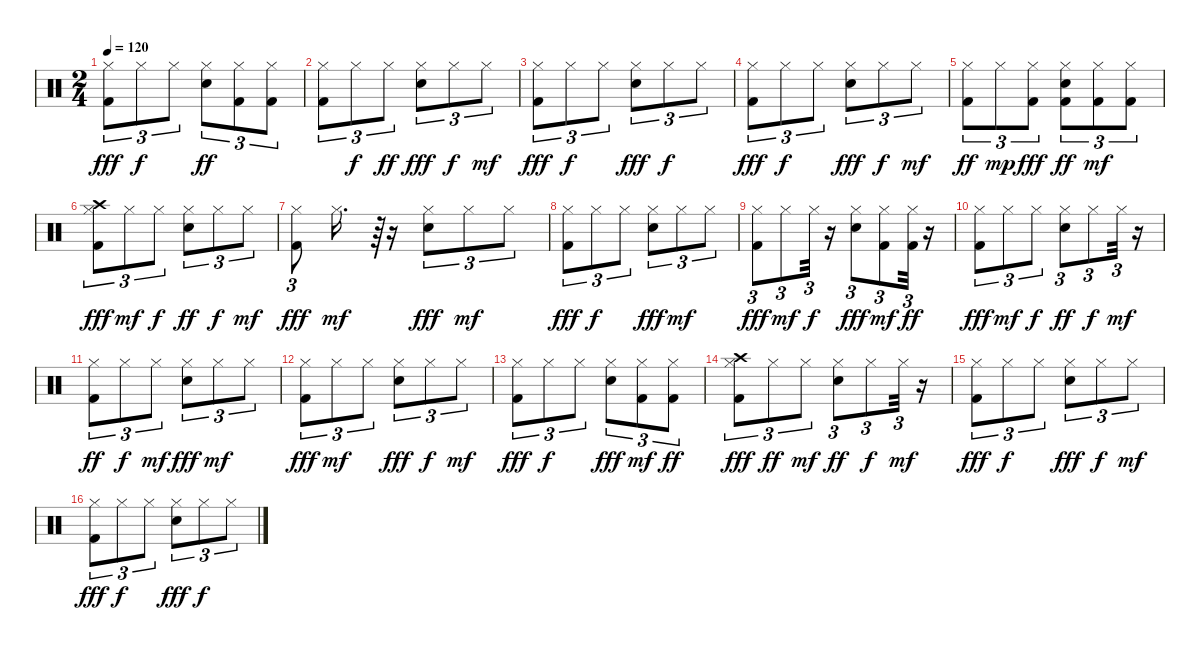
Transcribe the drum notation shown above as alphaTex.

\track "" {instrument percussion}
\staff {score}
\articulation defaults
\ts (2 4)
\tempo 120
\clef neutral
\ks c
("Hi-Hat (closed)" "Kick (hit) 2").8{tu (3 2) dy fff} "Hi-Hat (closed)".8{tu (3 2) dy f} "Hi-Hat (closed)".8{tu (3 2)} ("Snare (hit) 2" "Hi-Hat (closed)").8{tu (3 2) dy ff} ("Kick (hit) 2" "Hi-Hat (closed)").8{tu (3 2)} ("Hi-Hat (closed)" "Kick (hit) 2").8{tu (3 2)} |
("Kick (hit) 2" "Hi-Hat (closed)").8{tu (3 2)} "Hi-Hat (closed)".8{tu (3 2) dy f} "Hi-Hat (closed)".8{tu (3 2) dy ff} ("Snare (hit) 2" "Hi-Hat (closed)").8{tu (3 2) dy fff} "Hi-Hat (closed)".8{tu (3 2) dy f} "Hi-Hat (closed)".8{tu (3 2) dy mf} |
("Kick (hit) 2" "Hi-Hat (closed)").8{tu (3 2) dy fff} "Hi-Hat (closed)".8{tu (3 2) dy f} "Hi-Hat (closed)".8{tu (3 2)} ("Snare (hit) 2" "Hi-Hat (closed)").8{tu (3 2) dy fff} "Hi-Hat (closed)".8{tu (3 2) dy f} "Hi-Hat (closed)".8{tu (3 2)} |
("Kick (hit) 2" "Hi-Hat (closed)").8{tu (3 2) dy fff} "Hi-Hat (closed)".8{tu (3 2) dy f} "Hi-Hat (closed)".8{tu (3 2)} ("Snare (hit) 2" "Hi-Hat (closed)").8{tu (3 2) dy fff} "Hi-Hat (closed)".8{tu (3 2) dy f} "Hi-Hat (closed)".8{tu (3 2) dy mf} |
("Kick (hit) 2" "Hi-Hat (closed)").8{tu (3 2) dy ff} "Hi-Hat (closed)".8{tu (3 2) dy mp} ("Kick (hit) 2" "Hi-Hat (closed)").8{tu (3 2) dy fff} ("Snare (hit) 2" "Kick (hit) 2" "Hi-Hat (closed)").8{tu (3 2) dy ff} ("Kick (hit) 2" "Hi-Hat (closed)").8{tu (3 2) dy mf} ("Kick (hit) 2" "Hi-Hat (closed)").8{tu (3 2)} |
("Crash high (hit)" "Hi-Hat (closed)" "Kick (hit) 2").8{tu (3 2) dy fff} "Hi-Hat (closed)".8{tu (3 2) dy mf} "Hi-Hat (closed)".8{tu (3 2) dy f} ("Snare (hit) 2" "Hi-Hat (closed)").8{tu (3 2) dy ff} "Hi-Hat (closed)".8{tu (3 2) dy f} "Hi-Hat (closed)".8{tu (3 2) dy mf} |
("Kick (hit) 2" "Hi-Hat (closed)").8{tu (3 2) dy fff} "Hi-Hat (closed)".16{d dy mf} r.64{tu (3 2)} r.16 ("Snare (hit) 2" "Hi-Hat (closed)").8{tu (3 2) dy fff} "Hi-Hat (closed)".8{tu (3 2) dy mf} "Hi-Hat (closed)".8{tu (3 2)} |
("Kick (hit) 2" "Hi-Hat (closed)").8{tu (3 2) dy fff} "Hi-Hat (closed)".8{tu (3 2) dy f} "Hi-Hat (closed)".8{tu (3 2)} ("Hi-Hat (closed)" "Snare (hit) 2").8{tu (3 2) dy fff} "Hi-Hat (closed)".8{tu (3 2) dy mf} "Hi-Hat (closed)".8{tu (3 2)} |
("Kick (hit) 2" "Hi-Hat (closed)").8{tu (3 2) dy fff} "Hi-Hat (closed)".8{tu (3 2) dy mf} "Hi-Hat (closed)".32{tu (3 2) dy f} r.16 ("Snare (hit) 2" "Hi-Hat (closed)").8{tu (3 2) dy fff} ("Kick (hit) 2" "Hi-Hat (closed)").8{tu (3 2) dy mf} ("Hi-Hat (closed)" "Kick (hit) 2").32{tu (3 2) dy ff} r.16 |
("Kick (hit) 2" "Hi-Hat (closed)").8{tu (3 2) dy fff} "Hi-Hat (closed)".8{tu (3 2) dy mf} "Hi-Hat (closed)".8{tu (3 2) dy f} ("Snare (hit) 2" "Hi-Hat (closed)").8{tu (3 2) dy ff} "Hi-Hat (closed)".8{tu (3 2) dy f} "Hi-Hat (closed)".32{tu (3 2) dy mf} r.16 |
("Kick (hit) 2" "Hi-Hat (closed)").8{tu (3 2) dy ff} "Hi-Hat (closed)".8{tu (3 2) dy f} "Hi-Hat (closed)".8{tu (3 2) dy mf} ("Snare (hit) 2" "Hi-Hat (closed)").8{tu (3 2) dy fff} "Hi-Hat (closed)".8{tu (3 2) dy mf} "Hi-Hat (closed)".8{tu (3 2)} |
("Hi-Hat (closed)" "Kick (hit) 2").8{tu (3 2) dy fff} "Hi-Hat (closed)".8{tu (3 2) dy mf} "Hi-Hat (closed)".8{tu (3 2)} ("Hi-Hat (closed)" "Snare (hit) 2").8{tu (3 2) dy fff} "Hi-Hat (closed)".8{tu (3 2) dy f} "Hi-Hat (closed)".8{tu (3 2) dy mf} |
("Kick (hit) 2" "Hi-Hat (closed)").8{tu (3 2) dy fff} "Hi-Hat (closed)".8{tu (3 2) dy f} "Hi-Hat (closed)".8{tu (3 2)} ("Snare (hit) 2" "Hi-Hat (closed)").8{tu (3 2) dy fff} ("Kick (hit) 2" "Hi-Hat (closed)").8{tu (3 2) dy mf} ("Hi-Hat (closed)" "Kick (hit) 2").8{tu (3 2) dy ff} |
("Crash high (hit)" "Hi-Hat (closed)" "Kick (hit) 2").8{tu (3 2) dy fff} "Hi-Hat (closed)".8{tu (3 2) dy ff} "Hi-Hat (closed)".8{tu (3 2) dy mf} ("Snare (hit) 2" "Hi-Hat (closed)").8{tu (3 2) dy ff} "Hi-Hat (closed)".8{tu (3 2) dy f} "Hi-Hat (closed)".32{tu (3 2) dy mf} r.16 |
("Hi-Hat (closed)" "Kick (hit) 2").8{tu (3 2) dy fff} "Hi-Hat (closed)".8{tu (3 2) dy f} "Hi-Hat (closed)".8{tu (3 2)} ("Snare (hit) 2" "Hi-Hat (closed)").8{tu (3 2) dy fff} "Hi-Hat (closed)".8{tu (3 2) dy f} "Hi-Hat (closed)".8{tu (3 2) dy mf} |
("Kick (hit) 2" "Hi-Hat (closed)").8{tu (3 2) dy fff} "Hi-Hat (closed)".8{tu (3 2) dy f} "Hi-Hat (closed)".8{tu (3 2)} ("Snare (hit) 2" "Hi-Hat (closed)").8{tu (3 2) dy fff} "Hi-Hat (closed)".8{tu (3 2) dy f} "Hi-Hat (closed)".8{tu (3 2)}
